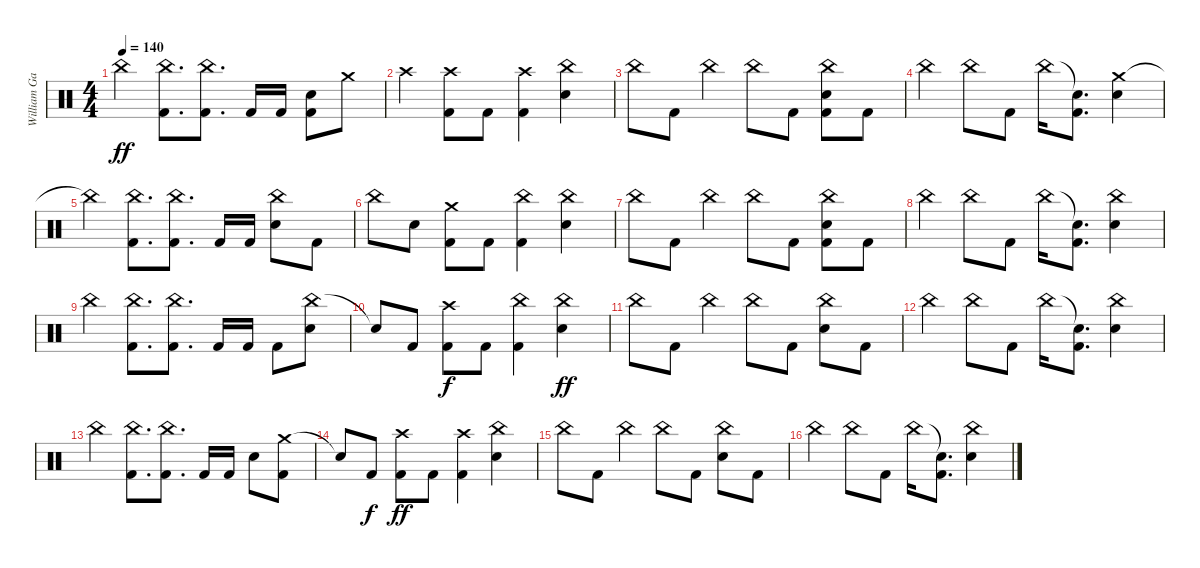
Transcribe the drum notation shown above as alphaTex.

\track ("William Gates (Drums)" "William Ga") {instrument percussion}
\staff {score}
\articulation defaults
\ts (4 4)
\tempo 140
\clef neutral
\ks c "China (hit)".4{dy ff}
("China (hit)" "Kick (hit) 2").8{d} ("China (hit)" "Kick (hit) 2").8{d} "Kick (hit) 2".16 "Kick (hit) 2".16 ("Snare (hit) 2" "Kick (hit) 2").8 "Crash medium (hit)".8 |
"Crash high (hit)".4 ("Crash high (hit)" "Kick (hit) 2").8 "Kick (hit) 2".8 ("Crash high (hit)" "Kick (hit) 2").4 ("China (hit)" "Snare (hit) 2").4 |
"China (hit)".8 "Kick (hit) 2".8 "China (hit)".4 "China (hit)".8 "Kick (hit) 2".8 ("China (hit)" "Snare (hit) 2" "Kick (hit) 2").8 "Kick (hit) 2".8 |
"China (hit)".4 "China (hit)".8 "Kick (hit) 2".8 "China (hit)".16 ("Snare (hit)"{t} "Kick (hit) 2").8{d} ("Crash medium (hit)" "Snare (hit) 2").4 |
"China (hit)"{t}.4 ("China (hit)" "Kick (hit) 2").8{d} ("China (hit)" "Kick (hit) 2").8{d} "Kick (hit) 2".16 "Kick (hit) 2".16 ("China (hit)" "Snare (hit) 2").8 "Kick (hit) 2".8 |
"China (hit)".8 "Snare (hit) 2".8 ("Crash medium (hit)" "Kick (hit) 2").8 "Kick (hit) 2".8 ("China (hit)" "Kick (hit) 2").4 ("China (hit)" "Snare (hit) 2").4 |
"China (hit)".8 "Kick (hit) 2".8 "China (hit)".4 "China (hit)".8 "Kick (hit) 2".8 ("China (hit)" "Snare (hit) 2" "Kick (hit) 2").8 "Kick (hit) 2".8 |
"China (hit)".4 "China (hit)".8 "Kick (hit) 2".8 "China (hit)".16 ("Snare (hit)"{t} "Kick (hit) 2").8{d} ("China (hit)" "Snare (hit) 2").4 |
"China (hit)".4 ("China (hit)" "Kick (hit) 2").8{d} ("China (hit)" "Kick (hit) 2").8{d} "Kick (hit) 2".16 "Kick (hit) 2".16 "Kick (hit) 2".8 ("China (hit)" "Snare (hit) 2").8 |
"Snare (hit)"{t}.8 "Kick (hit) 2".8 ("Crash high (hit)" "Kick (hit) 2").8{dy f} "Kick (hit) 2".8 ("China (hit)" "Kick (hit) 2").4 ("China (hit)" "Snare (hit) 2").4{dy ff} |
"China (hit)".8 "Kick (hit) 2".8 "China (hit)".4 "China (hit)".8 "Kick (hit) 2".8 ("China (hit)" "Snare (hit) 2").8 "Kick (hit) 2".8 |
"China (hit)".4 "China (hit)".8 "Kick (hit) 2".8 "China (hit)".16 ("Snare (hit)"{t} "Kick (hit) 2").8{d} ("China (hit)" "Snare (hit) 2").4 |
"China (hit)".4 ("China (hit)" "Kick (hit) 2").8{d} ("China (hit)" "Kick (hit) 2").8{d} "Kick (hit) 2".16 "Kick (hit) 2".16 "Snare (hit) 2".8 ("Crash medium (hit)" "Kick (hit) 2").8 |
"Snare (hit)"{t}.8 "Kick (hit) 2".8{dy f} ("Crash high (hit)" "Kick (hit) 2").8{dy ff} "Kick (hit) 2".8 ("Crash high (hit)" "Kick (hit) 2").4 ("China (hit)" "Snare (hit) 2").4 |
"China (hit)".8 "Kick (hit) 2".8 "China (hit)".4 "China (hit)".8 "Kick (hit) 2".8 ("China (hit)" "Snare (hit) 2").8 "Kick (hit) 2".8 |
"China (hit)".4 "China (hit)".8 "Kick (hit) 2".8 "China (hit)".16 ("Snare (hit)"{t} "Kick (hit) 2").8{d} ("China (hit)" "Snare (hit) 2").4
